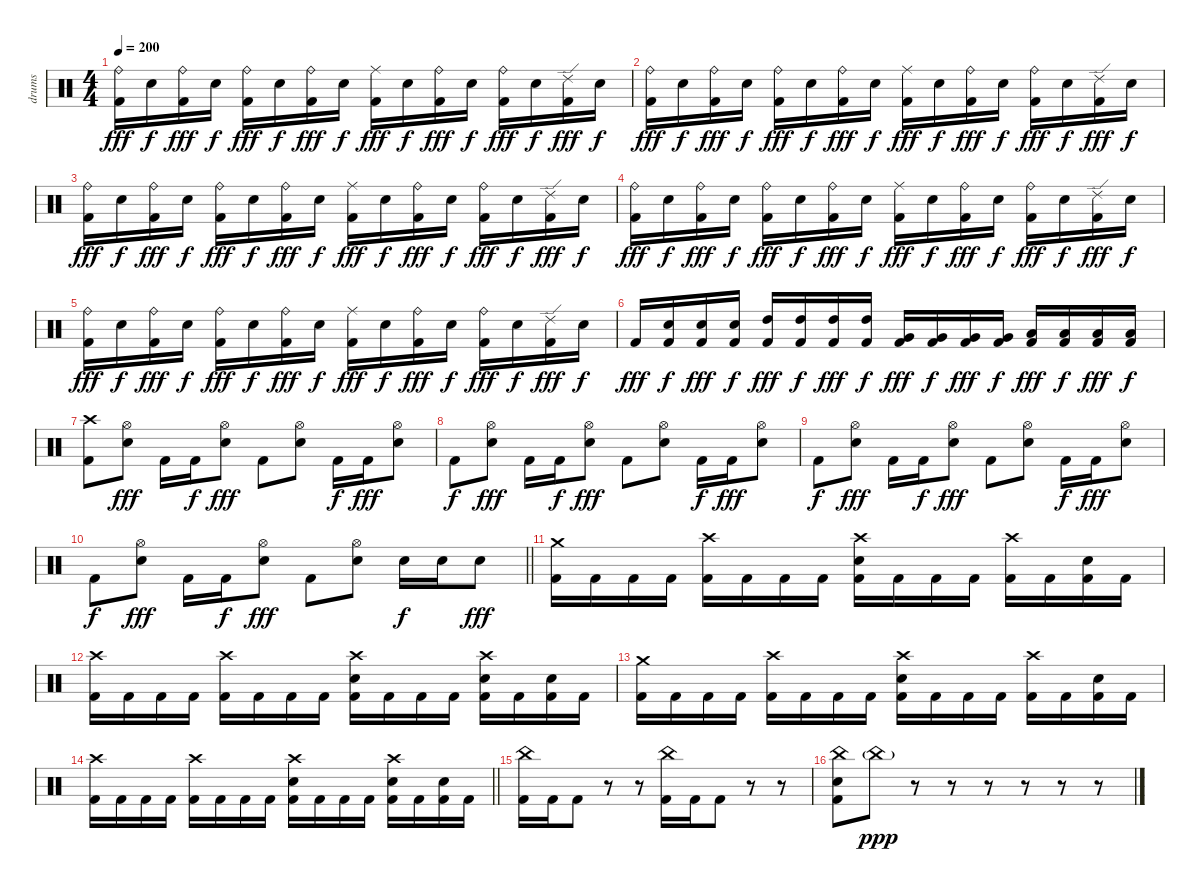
\track ("drums" "drums") {instrument percussion}
\staff {score}
\articulation defaults
\ts (4 4)
\tempo 200
\clef neutral
\ks c
("Ride (bell)" "Kick (hit) 2").16{dy fff} "Electric Snare (hit)".16{dy f} ("Ride (bell)" "Kick (hit) 2").16{dy fff} "Electric Snare (hit)".16{dy f} ("Ride (bell)" "Kick (hit) 2").16{dy fff} "Electric Snare (hit)".16{dy f} ("Ride (bell)" "Kick (hit) 2").16{dy fff} "Electric Snare (hit)".16{dy f} ("Ride (middle)" "Kick (hit) 2").16{dy fff} "Electric Snare (hit)".16{dy f} ("Ride (bell)" "Kick (hit) 2").16{dy fff} "Electric Snare (hit)".16{dy f} ("Ride (bell)" "Kick (hit) 2").16{dy fff} "Electric Snare (hit)".16{dy f} ("Ride (edge) 2" "Kick (hit) 2").16{dy fff} "Electric Snare (hit)".16{dy f} |
("Ride (bell)" "Kick (hit) 2").16{dy fff} "Electric Snare (hit)".16{dy f} ("Ride (bell)" "Kick (hit) 2").16{dy fff} "Electric Snare (hit)".16{dy f} ("Ride (bell)" "Kick (hit) 2").16{dy fff} "Electric Snare (hit)".16{dy f} ("Ride (bell)" "Kick (hit) 2").16{dy fff} "Electric Snare (hit)".16{dy f} ("Ride (middle)" "Kick (hit) 2").16{dy fff} "Electric Snare (hit)".16{dy f} ("Ride (bell)" "Kick (hit) 2").16{dy fff} "Electric Snare (hit)".16{dy f} ("Ride (bell)" "Kick (hit) 2").16{dy fff} "Electric Snare (hit)".16{dy f} ("Ride (edge) 2" "Kick (hit) 2").16{dy fff} "Electric Snare (hit)".16{dy f} |
("Ride (bell)" "Kick (hit) 2").16{dy fff} "Electric Snare (hit)".16{dy f} ("Ride (bell)" "Kick (hit) 2").16{dy fff} "Electric Snare (hit)".16{dy f} ("Ride (bell)" "Kick (hit) 2").16{dy fff} "Electric Snare (hit)".16{dy f} ("Ride (bell)" "Kick (hit) 2").16{dy fff} "Electric Snare (hit)".16{dy f} ("Ride (middle)" "Kick (hit) 2").16{dy fff} "Electric Snare (hit)".16{dy f} ("Ride (bell)" "Kick (hit) 2").16{dy fff} "Electric Snare (hit)".16{dy f} ("Ride (bell)" "Kick (hit) 2").16{dy fff} "Electric Snare (hit)".16{dy f} ("Ride (edge) 2" "Kick (hit) 2").16{dy fff} "Electric Snare (hit)".16{dy f} |
("Ride (bell)" "Kick (hit) 2").16{dy fff} "Electric Snare (hit)".16{dy f} ("Ride (bell)" "Kick (hit) 2").16{dy fff} "Electric Snare (hit)".16{dy f} ("Ride (bell)" "Kick (hit) 2").16{dy fff} "Electric Snare (hit)".16{dy f} ("Ride (bell)" "Kick (hit) 2").16{dy fff} "Electric Snare (hit)".16{dy f} ("Ride (middle)" "Kick (hit) 2").16{dy fff} "Electric Snare (hit)".16{dy f} ("Ride (bell)" "Kick (hit) 2").16{dy fff} "Electric Snare (hit)".16{dy f} ("Ride (bell)" "Kick (hit) 2").16{dy fff} "Electric Snare (hit)".16{dy f} ("Ride (edge) 2" "Kick (hit) 2").16{dy fff} "Electric Snare (hit)".16{dy f} |
("Ride (bell)" "Kick (hit) 2").16{dy fff} "Electric Snare (hit)".16{dy f} ("Ride (bell)" "Kick (hit) 2").16{dy fff} "Electric Snare (hit)".16{dy f} ("Ride (bell)" "Kick (hit) 2").16{dy fff} "Electric Snare (hit)".16{dy f} ("Ride (bell)" "Kick (hit) 2").16{dy fff} "Electric Snare (hit)".16{dy f} ("Ride (middle)" "Kick (hit) 2").16{dy fff} "Electric Snare (hit)".16{dy f} ("Ride (bell)" "Kick (hit) 2").16{dy fff} "Electric Snare (hit)".16{dy f} ("Ride (bell)" "Kick (hit) 2").16{dy fff} "Electric Snare (hit)".16{dy f} ("Ride (edge) 2" "Kick (hit) 2").16{dy fff} "Electric Snare (hit)".16{dy f} |
"Kick (hit) 2".16{dy fff} ("Electric Snare (hit)" "Kick (hit) 2").16{dy f} ("Electric Snare (hit)" "Kick (hit) 2").16{dy fff} ("Electric Snare (hit)" "Kick (hit) 2").16{dy f} ("High Tom (hit)" "Kick (hit) 2").16{dy fff} ("High Tom (hit)" "Kick (hit) 2").16{dy f} ("High Tom (hit)" "Kick (hit) 2").16{dy fff} ("High Tom (hit)" "Kick (hit) 2").16{dy f} ("Very Low Tom (hit)" "Kick (hit) 2").16{dy fff} ("Very Low Tom (hit)" "Kick (hit) 2").16{dy f} ("Very Low Tom (hit)" "Kick (hit) 2").16{dy fff} ("Very Low Tom (hit)" "Kick (hit) 2").16{dy f} ("Low Floor Tom (hit)" "Kick (hit) 2").16{dy fff} ("Low Floor Tom (hit)" "Kick (hit) 2").16{dy f} ("Low Floor Tom (hit)" "Kick (hit) 2").16{dy fff} ("Low Floor Tom (hit)" "Kick (hit) 2").16{dy f} |
("Crash high (hit)" "Kick (hit) 2").8 ("Hi-Hat (open)" "Electric Snare (hit)").8{dy fff} "Kick (hit) 2".16 "Kick (hit) 2".16{dy f} ("Hi-Hat (open)" "Electric Snare (hit)").8{dy fff} "Kick (hit) 2".8 ("Hi-Hat (open)" "Electric Snare (hit)").8 "Kick (hit) 2".16{dy f} "Kick (hit) 2".16{dy fff} ("Hi-Hat (open)" "Electric Snare (hit)").8 |
"Kick (hit) 2".8{dy f} ("Hi-Hat (open)" "Electric Snare (hit)").8{dy fff} "Kick (hit) 2".16 "Kick (hit) 2".16{dy f} ("Hi-Hat (open)" "Electric Snare (hit)").8{dy fff} "Kick (hit) 2".8 ("Hi-Hat (open)" "Electric Snare (hit)").8 "Kick (hit) 2".16{dy f} "Kick (hit) 2".16{dy fff} ("Hi-Hat (open)" "Electric Snare (hit)").8 |
"Kick (hit) 2".8{dy f} ("Hi-Hat (open)" "Electric Snare (hit)").8{dy fff} "Kick (hit) 2".16 "Kick (hit) 2".16{dy f} ("Hi-Hat (open)" "Electric Snare (hit)").8{dy fff} "Kick (hit) 2".8 ("Hi-Hat (open)" "Electric Snare (hit)").8 "Kick (hit) 2".16{dy f} "Kick (hit) 2".16{dy fff} ("Hi-Hat (open)" "Electric Snare (hit)").8 |
\barLineRight lightlight "Kick (hit) 2".8{dy f}
("Hi-Hat (open)" "Electric Snare (hit)").8{dy fff} "Kick (hit) 2".16 "Kick (hit) 2".16{dy f} ("Hi-Hat (open)" "Electric Snare (hit)").8{dy fff} "Kick (hit) 2".8 ("Hi-Hat (open)" "Electric Snare (hit)").8 "Electric Snare (hit)".16{dy f} "Electric Snare (hit)".16 "Electric Snare (hit)".8{dy fff} |
("Crash medium (hit)" "Kick (hit) 2").16 "Kick (hit) 2".16 "Kick (hit) 2".16 "Kick (hit) 2".16 ("Crash high (hit)" "Kick (hit) 2").16 "Kick (hit) 2".16 "Kick (hit) 2".16 "Kick (hit) 2".16 ("Crash high (hit)" "Electric Snare (hit)" "Kick (hit) 2").16 "Kick (hit) 2".16 "Kick (hit) 2".16 "Kick (hit) 2".16 ("Crash high (hit)" "Kick (hit) 2").16 "Kick (hit) 2".16 ("Electric Snare (hit)" "Kick (hit) 2").16 "Kick (hit) 2".16 |
("Crash high (hit)" "Kick (hit) 2").16 "Kick (hit) 2".16 "Kick (hit) 2".16 "Kick (hit) 2".16 ("Crash high (hit)" "Kick (hit) 2").16 "Kick (hit) 2".16 "Kick (hit) 2".16 "Kick (hit) 2".16 ("Crash high (hit)" "Electric Snare (hit)" "Kick (hit) 2").16 "Kick (hit) 2".16 "Kick (hit) 2".16 "Kick (hit) 2".16 ("Crash high (hit)" "Electric Snare (hit)" "Kick (hit) 2").16 "Kick (hit) 2".16 ("Electric Snare (hit)" "Kick (hit) 2").16 "Kick (hit) 2".16 |
("Crash medium (hit)" "Kick (hit) 2").16 "Kick (hit) 2".16 "Kick (hit) 2".16 "Kick (hit) 2".16 ("Crash high (hit)" "Kick (hit) 2").16 "Kick (hit) 2".16 "Kick (hit) 2".16 "Kick (hit) 2".16 ("Crash high (hit)" "Electric Snare (hit)" "Kick (hit) 2").16 "Kick (hit) 2".16 "Kick (hit) 2".16 "Kick (hit) 2".16 ("Crash high (hit)" "Kick (hit) 2").16 "Kick (hit) 2".16 ("Electric Snare (hit)" "Kick (hit) 2").16 "Kick (hit) 2".16 |
\barLineRight lightlight
("Crash high (hit)" "Kick (hit) 2").16 "Kick (hit) 2".16 "Kick (hit) 2".16 "Kick (hit) 2".16 ("Crash high (hit)" "Kick (hit) 2").16 "Kick (hit) 2".16 "Kick (hit) 2".16 "Kick (hit) 2".16 ("Crash high (hit)" "Electric Snare (hit)" "Kick (hit) 2").16 "Kick (hit) 2".16 "Kick (hit) 2".16 "Kick (hit) 2".16 ("Crash high (hit)" "Electric Snare (hit)" "Kick (hit) 2").16 "Kick (hit) 2".16 ("Electric Snare (hit)" "Kick (hit) 2").16 "Kick (hit) 2".16 |
("China (hit)" "Kick (hit) 2").16 "Kick (hit) 2".16 "Kick (hit) 2".8 r.8 r.8 ("China (hit)" "Kick (hit) 2").16 "Kick (hit) 2".16 "Kick (hit) 2".8 r.8 r.8 |
("China (hit)" "Electric Snare (hit)" "Kick (hit) 2").8 "China (hit)"{g}.8{dy ppp} r.8 r.8 r.8 r.8 r.8 r.8
